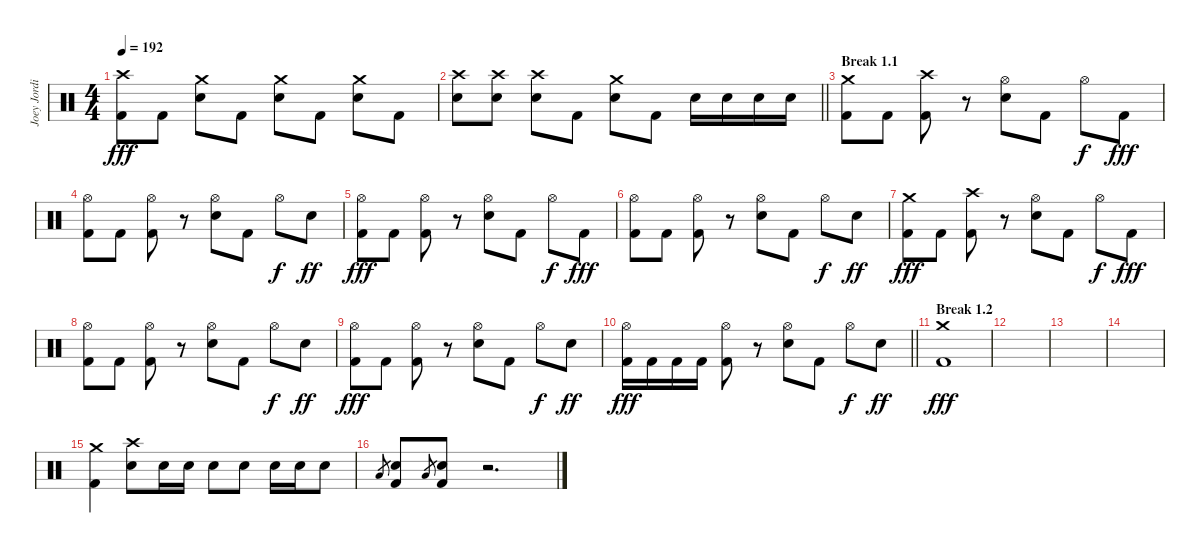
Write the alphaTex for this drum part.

\track ("Joey Jordison" "Joey Jordi") {instrument percussion}
\staff {score}
\articulation defaults
\ts (4 4)
\tempo 192
\clef neutral
\ks c
("Crash high (hit)" "Kick (hit) 2").8{dy fff} "Kick (hit) 2".8 ("Crash medium (hit)" "Electric Snare (hit)").8 "Kick (hit) 2".8 ("Crash medium (hit)" "Electric Snare (hit)").8 "Kick (hit) 2".8 ("Crash medium (hit)" "Electric Snare (hit)").8 "Kick (hit) 2".8 |
\barLineRight lightlight
("Crash high (hit)" "Electric Snare (hit)").8 ("Crash high (hit)" "Electric Snare (hit)").8 ("Crash high (hit)" "Electric Snare (hit)").8 "Kick (hit) 2".8 ("Crash medium (hit)" "Electric Snare (hit)").8 "Kick (hit) 2".8 "Electric Snare (hit)".16 "Electric Snare (hit)".16 "Electric Snare (hit)".16 "Electric Snare (hit)".16 |
\section ("" "Break 1.1")
("Crash medium (hit)" "Kick (hit) 2").8 "Kick (hit) 2".8 ("Crash high (hit)" "Kick (hit) 2").8 r.8 ("Hi-Hat (open)" "Electric Snare (hit)").8 "Kick (hit) 2".8 "Hi-Hat (open)".8{dy f} "Kick (hit) 2".8{dy fff} |
("Hi-Hat (open)" "Kick (hit) 2").8 "Kick (hit) 2".8 ("Hi-Hat (open)" "Kick (hit) 2").8 r.8 ("Hi-Hat (open)" "Electric Snare (hit)").8 "Kick (hit) 2".8 "Hi-Hat (open)".8{dy f} "Electric Snare (hit)".8{dy ff} |
("Hi-Hat (open)" "Kick (hit) 2").8{dy fff} "Kick (hit) 2".8 ("Hi-Hat (open)" "Kick (hit) 2").8 r.8 ("Hi-Hat (open)" "Electric Snare (hit)").8 "Kick (hit) 2".8 "Hi-Hat (open)".8{dy f} "Kick (hit) 2".8{dy fff} |
("Hi-Hat (open)" "Kick (hit) 2").8 "Kick (hit) 2".8 ("Hi-Hat (open)" "Kick (hit) 2").8 r.8 ("Hi-Hat (open)" "Electric Snare (hit)").8 "Kick (hit) 2".8 "Hi-Hat (open)".8{dy f} "Electric Snare (hit)".8{dy ff} |
("Crash medium (hit)" "Kick (hit) 2").8{dy fff} "Kick (hit) 2".8 ("Crash high (hit)" "Kick (hit) 2").8 r.8 ("Hi-Hat (open)" "Electric Snare (hit)").8 "Kick (hit) 2".8 "Hi-Hat (open)".8{dy f} "Kick (hit) 2".8{dy fff} |
("Hi-Hat (open)" "Kick (hit) 2").8 "Kick (hit) 2".8 ("Hi-Hat (open)" "Kick (hit) 2").8 r.8 ("Hi-Hat (open)" "Electric Snare (hit)").8 "Kick (hit) 2".8 "Hi-Hat (open)".8{dy f} "Electric Snare (hit)".8{dy ff} |
("Hi-Hat (open)" "Kick (hit) 2").8{dy fff} "Kick (hit) 2".8 ("Hi-Hat (open)" "Kick (hit) 2").8 r.8 ("Hi-Hat (open)" "Electric Snare (hit)").8 "Kick (hit) 2".8 "Hi-Hat (open)".8{dy f} "Electric Snare (hit)".8{dy ff} |
\barLineRight lightlight
("Hi-Hat (open)" "Kick (hit) 2").16{dy fff} "Kick (hit) 2".16 "Kick (hit) 2".16 "Kick (hit) 2".16 ("Hi-Hat (open)" "Kick (hit) 2").8 r.8 ("Hi-Hat (open)" "Electric Snare (hit)").8 "Kick (hit) 2".8 "Hi-Hat (open)".8{dy f} "Electric Snare (hit)".8{dy ff} |
\section ("" "Break 1.2")
("Crash medium (hit)" "Kick (hit) 2").1{dy fff} |
|
|
|
("Crash medium (hit)" "Kick (hit) 2").4 ("Crash high (hit)" "Electric Snare (hit)").8 "Electric Snare (hit)".16 "Electric Snare (hit)".16 "Electric Snare (hit)".8 "Electric Snare (hit)".8 "Electric Snare (hit)".16 "Electric Snare (hit)".16 "Electric Snare (hit)".8 |
"Low Floor Tom (hit)".8{gr} ("Electric Snare (hit)" "Kick (hit) 2").8 "Low Floor Tom (hit)".8{gr} ("Electric Snare (hit)" "Kick (hit) 2").8 r.2{d}
